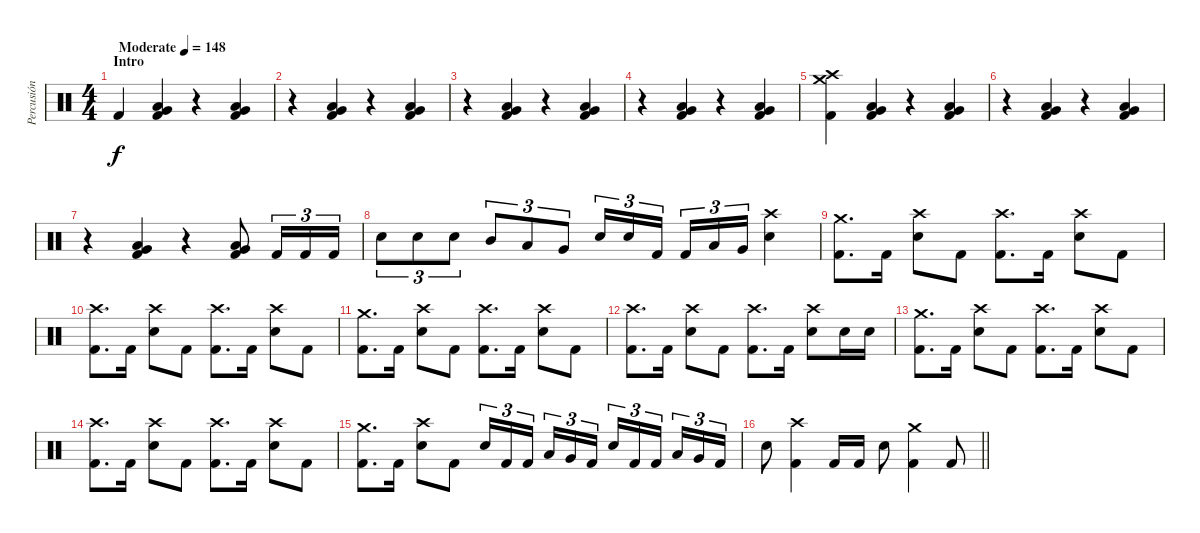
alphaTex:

\track ("Percusión" "Percusión") {instrument percussion}
\staff {score}
\articulation defaults
\ts (4 4)
\section ("" "Intro")
\tempo (148 "Moderate")
\clef neutral
\ks c "Kick (hit) 2".4{dy f}
("Low Tom (hit)" "Very Low Tom (hit)" "Kick (hit) 2").4 r.4 ("Low Tom (hit)" "Very Low Tom (hit)" "Kick (hit) 2").4 |
r.4 ("Low Tom (hit)" "Very Low Tom (hit)" "Kick (hit) 2").4 r.4 ("Low Tom (hit)" "Very Low Tom (hit)" "Kick (hit) 2").4 |
r.4 ("Low Tom (hit)" "Very Low Tom (hit)" "Kick (hit) 2").4 r.4 ("Low Tom (hit)" "Very Low Tom (hit)" "Kick (hit) 2").4 |
r.4 ("Low Tom (hit)" "Very Low Tom (hit)" "Kick (hit) 2").4 r.4 ("Low Tom (hit)" "Very Low Tom (hit)" "Kick (hit) 2").4 |
("Crash high (hit)" "Crash medium (hit)" "Kick (hit) 2").4 ("Low Tom (hit)" "Very Low Tom (hit)" "Kick (hit) 2").4 r.4 ("Low Tom (hit)" "Very Low Tom (hit)" "Kick (hit) 2").4 |
r.4 ("Low Tom (hit)" "Very Low Tom (hit)" "Kick (hit) 2").4 r.4 ("Low Tom (hit)" "Very Low Tom (hit)" "Kick (hit) 2").4 |
r.4 ("Low Tom (hit)" "Very Low Tom (hit)" "Kick (hit) 2").4 r.4 ("Low Tom (hit)" "Very Low Tom (hit)" "Kick (hit) 2").8 "Kick (hit) 2".16{tu (3 2)} "Kick (hit) 2".16{tu (3 2)} "Kick (hit) 2".16{tu (3 2)} |
"Electric Snare (hit)".8{tu (3 2)} "Electric Snare (hit)".8{tu (3 2)} "Electric Snare (hit)".8{tu (3 2)} "Mid Tom (hit)".8{tu (3 2)} "Low Tom (hit)".8{tu (3 2)} "Very Low Tom (hit)".8{tu (3 2)} "Electric Snare (hit)".16{tu (3 2)} "Electric Snare (hit)".16{tu (3 2)} "Kick (hit) 2".16{tu (3 2) beam splitsecondary} "Kick (hit) 2".16{tu (3 2)} "Low Tom (hit)".16{tu (3 2)} "Very Low Tom (hit)".16{tu (3 2)} ("Crash high (hit)" "Electric Snare (hit)").4 |
("Crash medium (hit)" "Kick (hit) 2").8{d} "Kick (hit) 2".16 ("Crash high (hit)" "Electric Snare (hit)").8 "Kick (hit) 2".8 ("Crash high (hit)" "Kick (hit) 2").8{d} "Kick (hit) 2".16 ("Crash high (hit)" "Electric Snare (hit)").8 "Kick (hit) 2".8 |
("Crash high (hit)" "Kick (hit) 2").8{d} "Kick (hit) 2".16 ("Crash high (hit)" "Electric Snare (hit)").8 "Kick (hit) 2".8 ("Crash high (hit)" "Kick (hit) 2").8{d} "Kick (hit) 2".16 ("Crash high (hit)" "Electric Snare (hit)").8 "Kick (hit) 2".8 |
("Crash medium (hit)" "Kick (hit) 2").8{d} "Kick (hit) 2".16 ("Crash high (hit)" "Electric Snare (hit)").8 "Kick (hit) 2".8 ("Crash high (hit)" "Kick (hit) 2").8{d} "Kick (hit) 2".16 ("Crash high (hit)" "Electric Snare (hit)").8 "Kick (hit) 2".8 |
("Crash high (hit)" "Kick (hit) 2").8{d} "Kick (hit) 2".16 ("Crash high (hit)" "Electric Snare (hit)").8 "Kick (hit) 2".8 ("Crash high (hit)" "Kick (hit) 2").8{d} "Kick (hit) 2".16 ("Crash high (hit)" "Electric Snare (hit)").8 "Electric Snare (hit)".16 "Electric Snare (hit)".16 |
("Crash medium (hit)" "Kick (hit) 2").8{d} "Kick (hit) 2".16 ("Crash high (hit)" "Electric Snare (hit)").8 "Kick (hit) 2".8 ("Crash high (hit)" "Kick (hit) 2").8{d} "Kick (hit) 2".16 ("Crash high (hit)" "Electric Snare (hit)").8 "Kick (hit) 2".8 |
("Crash high (hit)" "Kick (hit) 2").8{d} "Kick (hit) 2".16 ("Crash high (hit)" "Electric Snare (hit)").8 "Kick (hit) 2".8 ("Crash high (hit)" "Kick (hit) 2").8{d} "Kick (hit) 2".16 ("Crash high (hit)" "Electric Snare (hit)").8 "Kick (hit) 2".8 |
("Crash medium (hit)" "Kick (hit) 2").8{d} "Kick (hit) 2".16 ("Crash high (hit)" "Electric Snare (hit)").8 "Kick (hit) 2".8 "Electric Snare (hit)".16{tu (3 2)} "Kick (hit) 2".16{tu (3 2)} "Kick (hit) 2".16{tu (3 2) beam splitsecondary} "Low Tom (hit)".16{tu (3 2)} "Very Low Tom (hit)".16{tu (3 2)} "Kick (hit) 2".16{tu (3 2)} "Electric Snare (hit)".16{tu (3 2)} "Kick (hit) 2".16{tu (3 2)} "Kick (hit) 2".16{tu (3 2) beam splitsecondary} "Low Tom (hit)".16{tu (3 2)} "Very Low Tom (hit)".16{tu (3 2)} "Kick (hit) 2".16{tu (3 2)} |
\barLineRight lightlight "Electric Snare (hit)".8
("Crash high (hit)" "Kick (hit) 2").4 "Kick (hit) 2".16 "Kick (hit) 2".16 "Electric Snare (hit)".8 ("Crash medium (hit)" "Kick (hit) 2").4 "Kick (hit) 2".8
